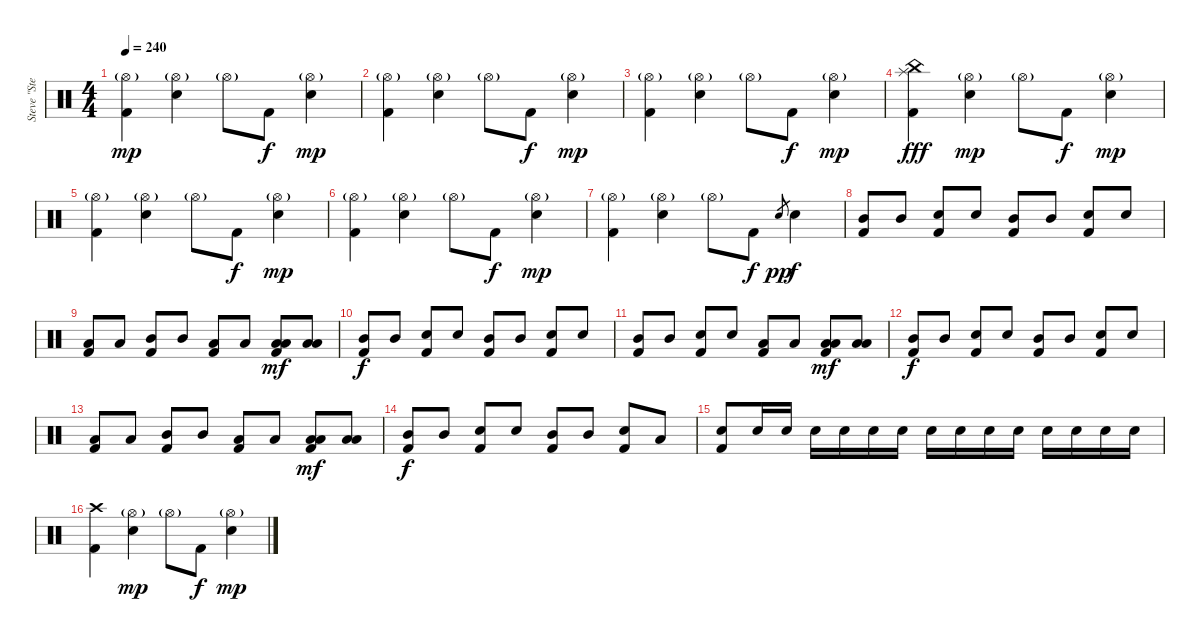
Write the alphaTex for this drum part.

\track ("Steve \"Stevo32\" Jocz " "Steve \"Ste") {instrument percussion}
\staff {score}
\articulation defaults
\ts (4 4)
\tempo 240
\clef neutral
\ks c
("Hi-Hat (open)"{g} "Kick (hit) 2").4{dy mp} ("Hi-Hat (open)"{g} "Electric Snare (hit)").4 "Hi-Hat (open)"{g}.8 "Kick (hit) 2".8{dy f} ("Hi-Hat (open)"{g} "Electric Snare (hit)").4{dy mp} |
("Hi-Hat (open)"{g} "Kick (hit) 2").4 ("Hi-Hat (open)"{g} "Electric Snare (hit)").4 "Hi-Hat (open)"{g}.8 "Kick (hit) 2".8{dy f} ("Hi-Hat (open)"{g} "Electric Snare (hit)").4{dy mp} |
("Hi-Hat (open)"{g} "Kick (hit) 2").4 ("Hi-Hat (open)"{g} "Electric Snare (hit)").4 "Hi-Hat (open)"{g}.8 "Kick (hit) 2".8{dy f} ("Hi-Hat (open)"{g} "Electric Snare (hit)").4{dy mp} |
("China (hit)" "Splash (hit)" "Kick (hit) 2").4{dy fff} ("Hi-Hat (open)"{g} "Electric Snare (hit)").4{dy mp} "Hi-Hat (open)"{g}.8 "Kick (hit) 2".8{dy f} ("Hi-Hat (open)"{g} "Electric Snare (hit)").4{dy mp} |
("Hi-Hat (open)"{g} "Kick (hit) 2").4 ("Hi-Hat (open)"{g} "Electric Snare (hit)").4 "Hi-Hat (open)"{g}.8 "Kick (hit) 2".8{dy f} ("Hi-Hat (open)"{g} "Electric Snare (hit)").4{dy mp} |
("Hi-Hat (open)"{g} "Kick (hit) 2").4 ("Hi-Hat (open)"{g} "Electric Snare (hit)").4 "Hi-Hat (open)"{g}.8 "Kick (hit) 2".8{dy f} ("Hi-Hat (open)"{g} "Electric Snare (hit)").4{dy mp} |
("Hi-Hat (open)"{g} "Kick (hit) 2").4 ("Hi-Hat (open)"{g} "Electric Snare (hit)").4 "Hi-Hat (open)"{g}.8 "Kick (hit) 2".8{dy f} "Electric Snare (hit)".8{gr dy pp} "Electric Snare (hit)".4{dy f} |
("Mid Tom (hit)" "Kick (hit) 2").8 "Mid Tom (hit)".8 ("Electric Snare (hit)" "Kick (hit) 2").8 "Electric Snare (hit)".8 ("Mid Tom (hit)" "Kick (hit) 2").8 "Mid Tom (hit)".8 ("Electric Snare (hit)" "Kick (hit) 2").8 "Electric Snare (hit)".8 |
("Low Tom (hit)" "Kick (hit) 2").8 "Low Tom (hit)".8 ("Mid Tom (hit)" "Kick (hit) 2").8 "Mid Tom (hit)".8 ("Low Tom (hit)" "Kick (hit) 2").8 "Low Tom (hit)".8 ("Low Floor Tom (hit)" "Low Tom (hit)" "Kick (hit) 2").8{dy mf} ("Low Floor Tom (hit)" "Low Tom (hit)").8 |
("Mid Tom (hit)" "Kick (hit) 2").8{dy f} "Mid Tom (hit)".8 ("Electric Snare (hit)" "Kick (hit) 2").8 "Electric Snare (hit)".8 ("Mid Tom (hit)" "Kick (hit) 2").8 "Mid Tom (hit)".8 ("Electric Snare (hit)" "Kick (hit) 2").8 "Electric Snare (hit)".8 |
("Mid Tom (hit)" "Kick (hit) 2").8 "Mid Tom (hit)".8 ("Electric Snare (hit)" "Kick (hit) 2").8 "Electric Snare (hit)".8 ("Low Tom (hit)" "Kick (hit) 2").8 "Low Tom (hit)".8 ("Low Floor Tom (hit)" "Low Tom (hit)" "Kick (hit) 2").8{dy mf} ("Low Floor Tom (hit)" "Low Tom (hit)").8 |
("Mid Tom (hit)" "Kick (hit) 2").8{dy f} "Mid Tom (hit)".8 ("Electric Snare (hit)" "Kick (hit) 2").8 "Electric Snare (hit)".8 ("Mid Tom (hit)" "Kick (hit) 2").8 "Mid Tom (hit)".8 ("Electric Snare (hit)" "Kick (hit) 2").8 "Electric Snare (hit)".8 |
("Low Tom (hit)" "Kick (hit) 2").8 "Low Tom (hit)".8 ("Mid Tom (hit)" "Kick (hit) 2").8 "Mid Tom (hit)".8 ("Low Tom (hit)" "Kick (hit) 2").8 "Low Tom (hit)".8 ("Low Floor Tom (hit)" "Low Tom (hit)" "Kick (hit) 2").8{dy mf} ("Low Floor Tom (hit)" "Low Tom (hit)").8 |
("Mid Tom (hit)" "Kick (hit) 2").8{dy f} "Mid Tom (hit)".8 ("Electric Snare (hit)" "Kick (hit) 2").8 "Electric Snare (hit)".8 ("Mid Tom (hit)" "Kick (hit) 2").8 "Mid Tom (hit)".8 ("Electric Snare (hit)" "Kick (hit) 2").8 "Low Tom (hit)".8 |
("Electric Snare (hit)" "Kick (hit) 2").8 "Electric Snare (hit)".16 "Electric Snare (hit)".16 "Electric Snare (hit)".16 "Electric Snare (hit)".16 "Electric Snare (hit)".16 "Electric Snare (hit)".16 "Electric Snare (hit)".16 "Electric Snare (hit)".16 "Electric Snare (hit)".16 "Electric Snare (hit)".16 "Electric Snare (hit)".16 "Electric Snare (hit)".16 "Electric Snare (hit)".16 "Electric Snare (hit)".16 |
("Crash high (hit)" "Kick (hit) 2").4 ("Hi-Hat (open)"{g} "Electric Snare (hit)").4{dy mp} "Hi-Hat (open)"{g}.8 "Kick (hit) 2".8{dy f} ("Hi-Hat (open)"{g} "Electric Snare (hit)").4{dy mp}
